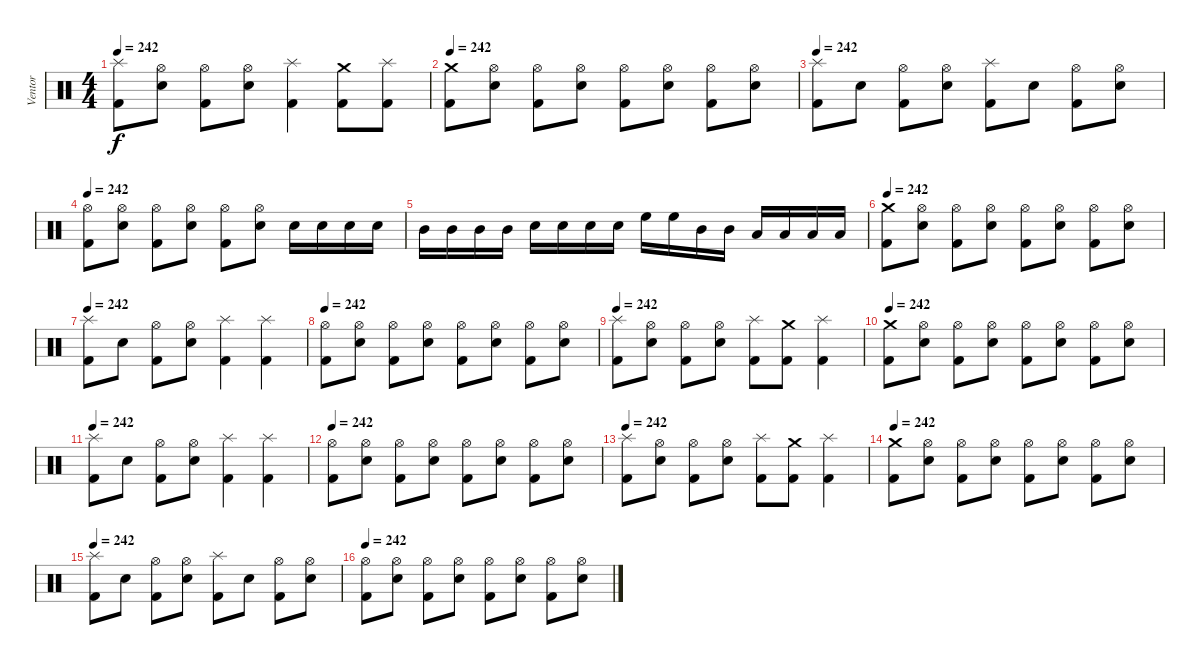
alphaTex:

\track ("Ventor" "Ventor") {instrument percussion}
\staff {score}
\articulation defaults
\ts (4 4)
\tempo 242
\clef neutral
\ks c
("Splash (hit)" "Kick (hit) 2").8{dy f} ("Hi-Hat (open)" "Snare (hit) 2").8 ("Hi-Hat (open)" "Kick (hit) 2").8 ("Hi-Hat (open)" "Snare (hit) 2").8 ("Splash (hit)" "Kick (hit) 2").4 ("Crash medium (hit)" "Kick (hit) 2").8 ("Splash (hit)" "Kick (hit) 2").8 |
\tempo 242
("Crash medium (hit)" "Kick (hit) 2").8 ("Hi-Hat (open)" "Snare (hit) 2").8 ("Hi-Hat (open)" "Kick (hit) 2").8 ("Hi-Hat (open)" "Snare (hit) 2").8 ("Hi-Hat (open)" "Kick (hit) 2").8 ("Hi-Hat (open)" "Snare (hit) 2").8 ("Hi-Hat (open)" "Kick (hit) 2").8 ("Hi-Hat (open)" "Snare (hit) 2").8 |
\tempo 242
("Splash (hit)" "Kick (hit) 2").8 "Snare (hit) 2".8 ("Hi-Hat (open)" "Kick (hit) 2").8 ("Hi-Hat (open)" "Snare (hit) 2").8 ("Splash (hit)" "Kick (hit) 2").8 "Snare (hit) 2".8 ("Hi-Hat (open)" "Kick (hit) 2").8 ("Hi-Hat (open)" "Snare (hit) 2").8 |
\tempo 242
("Hi-Hat (open)" "Kick (hit) 2").8 ("Hi-Hat (open)" "Snare (hit) 2").8 ("Hi-Hat (open)" "Kick (hit) 2").8 ("Hi-Hat (open)" "Snare (hit) 2").8 ("Hi-Hat (open)" "Kick (hit) 2").8 ("Hi-Hat (open)" "Snare (hit) 2").8 "Snare (hit) 2".16 "Snare (hit) 2".16 "Snare (hit) 2".16 "Snare (hit) 2".16 |
"Mid Tom (hit)".16 "Mid Tom (hit)".16 "Mid Tom (hit)".16 "Mid Tom (hit)".16 "Snare (hit) 2".16 "Snare (hit) 2".16 "Snare (hit) 2".16 "Snare (hit) 2".16 "High Floor Tom (hit)".16 "High Floor Tom (hit)".16 "Mid Tom (hit)".16 "Mid Tom (hit)".16 "Low Tom (hit)".16 "Low Tom (hit)".16 "Low Floor Tom (hit)".16 "Low Floor Tom (hit)".16 |
\tempo 242
("Crash medium (hit)" "Kick (hit) 2").8 ("Hi-Hat (open)" "Snare (hit) 2").8 ("Hi-Hat (open)" "Kick (hit) 2").8 ("Hi-Hat (open)" "Snare (hit) 2").8 ("Hi-Hat (open)" "Kick (hit) 2").8 ("Hi-Hat (open)" "Snare (hit) 2").8 ("Hi-Hat (open)" "Kick (hit) 2").8 ("Hi-Hat (open)" "Snare (hit) 2").8 |
\tempo 242
("Splash (hit)" "Kick (hit) 2").8 "Snare (hit) 2".8 ("Hi-Hat (open)" "Kick (hit) 2").8 ("Hi-Hat (open)" "Snare (hit) 2").8 ("Splash (hit)" "Kick (hit) 2").4 ("Splash (hit)" "Kick (hit) 2").4 |
\tempo 242
("Hi-Hat (open)" "Kick (hit) 2").8 ("Hi-Hat (open)" "Snare (hit) 2").8 ("Hi-Hat (open)" "Kick (hit) 2").8 ("Hi-Hat (open)" "Snare (hit) 2").8 ("Hi-Hat (open)" "Kick (hit) 2").8 ("Hi-Hat (open)" "Snare (hit) 2").8 ("Hi-Hat (open)" "Kick (hit) 2").8 ("Hi-Hat (open)" "Snare (hit) 2").8 |
\tempo 242
("Splash (hit)" "Kick (hit) 2").8 ("Hi-Hat (open)" "Snare (hit) 2").8 ("Hi-Hat (open)" "Kick (hit) 2").8 ("Hi-Hat (open)" "Snare (hit) 2").8 ("Splash (hit)" "Kick (hit) 2").8 ("Crash medium (hit)" "Kick (hit) 2").8 ("Splash (hit)" "Kick (hit) 2").4 |
\tempo 242
("Crash medium (hit)" "Kick (hit) 2").8 ("Hi-Hat (open)" "Snare (hit) 2").8 ("Hi-Hat (open)" "Kick (hit) 2").8 ("Hi-Hat (open)" "Snare (hit) 2").8 ("Hi-Hat (open)" "Kick (hit) 2").8 ("Hi-Hat (open)" "Snare (hit) 2").8 ("Hi-Hat (open)" "Kick (hit) 2").8 ("Hi-Hat (open)" "Snare (hit) 2").8 |
\tempo 242
("Splash (hit)" "Kick (hit) 2").8 "Snare (hit) 2".8 ("Hi-Hat (open)" "Kick (hit) 2").8 ("Hi-Hat (open)" "Snare (hit) 2").8 ("Splash (hit)" "Kick (hit) 2").4 ("Splash (hit)" "Kick (hit) 2").4 |
\tempo 242
("Hi-Hat (open)" "Kick (hit) 2").8 ("Hi-Hat (open)" "Snare (hit) 2").8 ("Hi-Hat (open)" "Kick (hit) 2").8 ("Hi-Hat (open)" "Snare (hit) 2").8 ("Hi-Hat (open)" "Kick (hit) 2").8 ("Hi-Hat (open)" "Snare (hit) 2").8 ("Hi-Hat (open)" "Kick (hit) 2").8 ("Hi-Hat (open)" "Snare (hit) 2").8 |
\tempo 242
("Splash (hit)" "Kick (hit) 2").8 ("Hi-Hat (open)" "Snare (hit) 2").8 ("Hi-Hat (open)" "Kick (hit) 2").8 ("Hi-Hat (open)" "Snare (hit) 2").8 ("Splash (hit)" "Kick (hit) 2").8 ("Crash medium (hit)" "Kick (hit) 2").8 ("Splash (hit)" "Kick (hit) 2").4 |
\tempo 242
("Crash medium (hit)" "Kick (hit) 2").8 ("Hi-Hat (open)" "Snare (hit) 2").8 ("Hi-Hat (open)" "Kick (hit) 2").8 ("Hi-Hat (open)" "Snare (hit) 2").8 ("Hi-Hat (open)" "Kick (hit) 2").8 ("Hi-Hat (open)" "Snare (hit) 2").8 ("Hi-Hat (open)" "Kick (hit) 2").8 ("Hi-Hat (open)" "Snare (hit) 2").8 |
\tempo 242
("Splash (hit)" "Kick (hit) 2").8 "Snare (hit) 2".8 ("Hi-Hat (open)" "Kick (hit) 2").8 ("Hi-Hat (open)" "Snare (hit) 2").8 ("Splash (hit)" "Kick (hit) 2").8 "Snare (hit) 2".8 ("Hi-Hat (open)" "Kick (hit) 2").8 ("Hi-Hat (open)" "Snare (hit) 2").8 |
\tempo 242
("Hi-Hat (open)" "Kick (hit) 2").8 ("Hi-Hat (open)" "Snare (hit) 2").8 ("Hi-Hat (open)" "Kick (hit) 2").8 ("Hi-Hat (open)" "Snare (hit) 2").8 ("Hi-Hat (open)" "Kick (hit) 2").8 ("Hi-Hat (open)" "Snare (hit) 2").8 ("Hi-Hat (open)" "Kick (hit) 2").8 ("Hi-Hat (open)" "Snare (hit) 2").8
